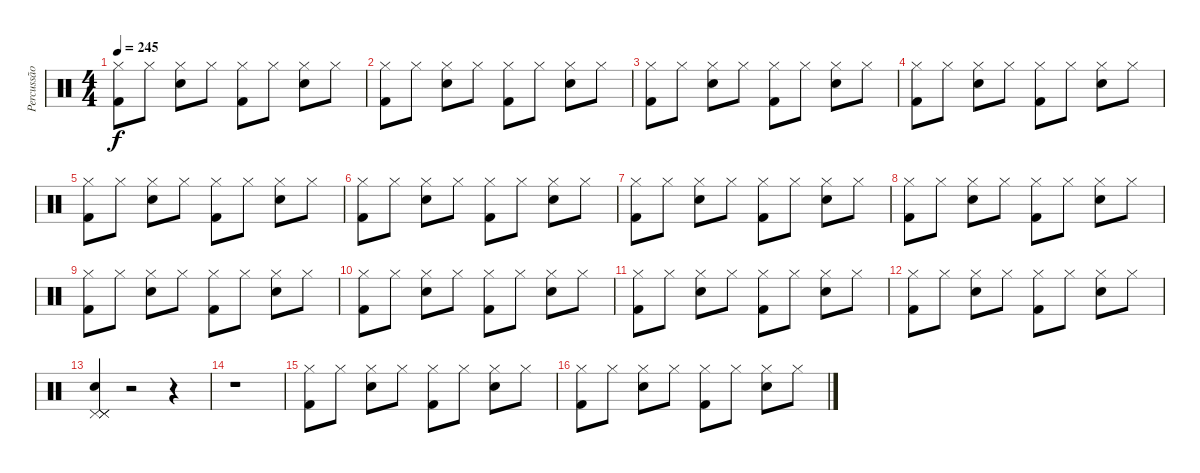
\track ("Percussão" "Percussão") {instrument percussion}
\staff {score}
\articulation defaults
\ts (4 4)
\tempo 245
\clef neutral
\ks c
("Hi-Hat (closed)" "Kick (hit) 2").8{dy f} "Hi-Hat (closed)".8 ("Hi-Hat (closed)" "Snare (hit) 2").8 "Hi-Hat (closed)".8 ("Hi-Hat (closed)" "Kick (hit) 2").8 "Hi-Hat (closed)".8 ("Hi-Hat (closed)" "Snare (hit) 2").8 "Hi-Hat (closed)".8 |
("Hi-Hat (closed)" "Kick (hit) 2").8 "Hi-Hat (closed)".8 ("Hi-Hat (closed)" "Snare (hit) 2").8 "Hi-Hat (closed)".8 ("Hi-Hat (closed)" "Kick (hit) 2").8 "Hi-Hat (closed)".8 ("Hi-Hat (closed)" "Snare (hit) 2").8 "Hi-Hat (closed)".8 |
("Hi-Hat (closed)" "Kick (hit) 2").8 "Hi-Hat (closed)".8 ("Hi-Hat (closed)" "Snare (hit) 2").8 "Hi-Hat (closed)".8 ("Hi-Hat (closed)" "Kick (hit) 2").8 "Hi-Hat (closed)".8 ("Hi-Hat (closed)" "Snare (hit) 2").8 "Hi-Hat (closed)".8 |
("Hi-Hat (closed)" "Kick (hit) 2").8 "Hi-Hat (closed)".8 ("Hi-Hat (closed)" "Snare (hit) 2").8 "Hi-Hat (closed)".8 ("Hi-Hat (closed)" "Kick (hit) 2").8 "Hi-Hat (closed)".8 ("Hi-Hat (closed)" "Snare (hit) 2").8 "Hi-Hat (closed)".8 |
("Hi-Hat (closed)" "Kick (hit) 2").8 "Hi-Hat (closed)".8 ("Hi-Hat (closed)" "Snare (hit) 2").8 "Hi-Hat (closed)".8 ("Hi-Hat (closed)" "Kick (hit) 2").8 "Hi-Hat (closed)".8 ("Hi-Hat (closed)" "Snare (hit) 2").8 "Hi-Hat (closed)".8 |
("Hi-Hat (closed)" "Kick (hit) 2").8 "Hi-Hat (closed)".8 ("Hi-Hat (closed)" "Snare (hit) 2").8 "Hi-Hat (closed)".8 ("Hi-Hat (closed)" "Kick (hit) 2").8 "Hi-Hat (closed)".8 ("Hi-Hat (closed)" "Snare (hit) 2").8 "Hi-Hat (closed)".8 |
("Hi-Hat (closed)" "Kick (hit) 2").8 "Hi-Hat (closed)".8 ("Hi-Hat (closed)" "Snare (hit) 2").8 "Hi-Hat (closed)".8 ("Hi-Hat (closed)" "Kick (hit) 2").8 "Hi-Hat (closed)".8 ("Hi-Hat (closed)" "Snare (hit) 2").8 "Hi-Hat (closed)".8 |
("Hi-Hat (closed)" "Kick (hit) 2").8 "Hi-Hat (closed)".8 ("Hi-Hat (closed)" "Snare (hit) 2").8 "Hi-Hat (closed)".8 ("Hi-Hat (closed)" "Kick (hit) 2").8 "Hi-Hat (closed)".8 ("Hi-Hat (closed)" "Snare (hit) 2").8 "Hi-Hat (closed)".8 |
("Hi-Hat (closed)" "Kick (hit) 2").8 "Hi-Hat (closed)".8 ("Hi-Hat (closed)" "Snare (hit) 2").8 "Hi-Hat (closed)".8 ("Hi-Hat (closed)" "Kick (hit) 2").8 "Hi-Hat (closed)".8 ("Hi-Hat (closed)" "Snare (hit) 2").8 "Hi-Hat (closed)".8 |
("Hi-Hat (closed)" "Kick (hit) 2").8 "Hi-Hat (closed)".8 ("Hi-Hat (closed)" "Snare (hit) 2").8 "Hi-Hat (closed)".8 ("Hi-Hat (closed)" "Kick (hit) 2").8 "Hi-Hat (closed)".8 ("Hi-Hat (closed)" "Snare (hit) 2").8 "Hi-Hat (closed)".8 |
("Hi-Hat (closed)" "Kick (hit) 2").8 "Hi-Hat (closed)".8 ("Hi-Hat (closed)" "Snare (hit) 2").8 "Hi-Hat (closed)".8 ("Hi-Hat (closed)" "Kick (hit) 2").8 "Hi-Hat (closed)".8 ("Hi-Hat (closed)" "Snare (hit) 2").8 "Hi-Hat (closed)".8 |
("Hi-Hat (closed)" "Kick (hit) 2").8 "Hi-Hat (closed)".8 ("Hi-Hat (closed)" "Snare (hit) 2").8 "Hi-Hat (closed)".8 ("Hi-Hat (closed)" "Kick (hit) 2").8 "Hi-Hat (closed)".8 ("Hi-Hat (closed)" "Snare (hit) 2").8 "Hi-Hat (closed)".8 |
("Pedal Hi-Hat (hit)" "Pedal Hi-Hat (hit)" "Snare (hit) 2" "Pedal Hi-Hat (hit)").4 r.2 r.4 |
r.1 |
("Hi-Hat (closed)" "Kick (hit) 2").8 "Hi-Hat (closed)".8 ("Hi-Hat (closed)" "Snare (hit) 2").8 "Hi-Hat (closed)".8 ("Hi-Hat (closed)" "Kick (hit) 2").8 "Hi-Hat (closed)".8 ("Hi-Hat (closed)" "Snare (hit) 2").8 "Hi-Hat (closed)".8 |
("Hi-Hat (closed)" "Kick (hit) 2").8 "Hi-Hat (closed)".8 ("Hi-Hat (closed)" "Snare (hit) 2").8 "Hi-Hat (closed)".8 ("Hi-Hat (closed)" "Kick (hit) 2").8 "Hi-Hat (closed)".8 ("Hi-Hat (closed)" "Snare (hit) 2").8 "Hi-Hat (closed)".8
